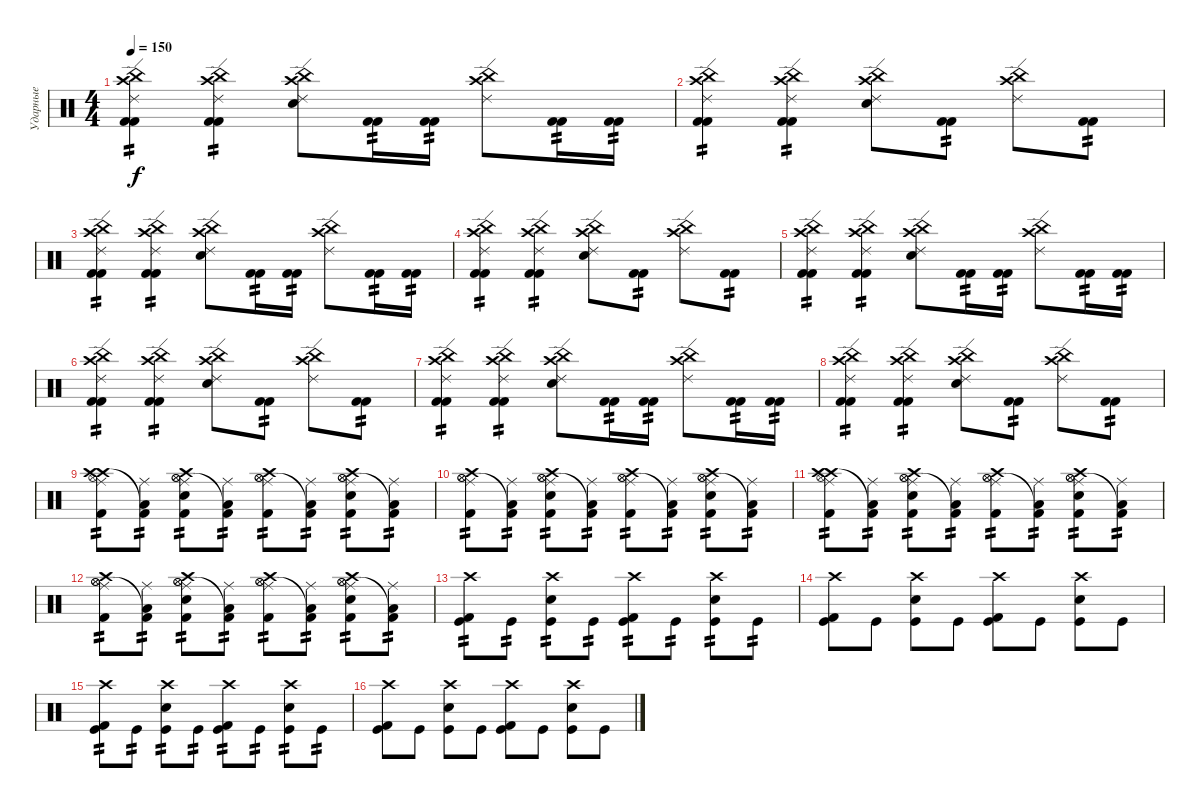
\track ("Ударные" "Ударные") {instrument percussion}
\staff {score}
\articulation defaults
\ts (4 4)
\tempo 150
\clef neutral
\ks c
("Crash high (hit)" "Ride (edge) 2" "China (hit)" "Kick (hit) 2" "Kick (hit) 2").4{tp 2 dy f} ("Crash high (hit)" "Ride (edge) 2" "China (hit)" "Kick (hit) 2" "Kick (hit) 2").4{tp 2} ("Crash high (hit)" "Ride (edge) 2" "Electric Snare (hit)" "China (hit)").8 ("Kick (hit) 2" "Kick (hit) 2").16{tp 2} ("Kick (hit) 2" "Kick (hit) 2").16{tp 2} ("Crash high (hit)" "Ride (edge) 2" "China (hit)").8 ("Kick (hit) 2" "Kick (hit) 2").16{tp 2} ("Kick (hit) 2" "Kick (hit) 2").16{tp 2} |
("Crash high (hit)" "Ride (edge) 2" "China (hit)" "Kick (hit) 2" "Kick (hit) 2").4{tp 2} ("Crash high (hit)" "Ride (edge) 2" "China (hit)" "Kick (hit) 2" "Kick (hit) 2").4{tp 2} ("Crash high (hit)" "Ride (edge) 2" "Electric Snare (hit)" "China (hit)").8 ("Kick (hit) 2" "Kick (hit) 2").8{tp 2} ("Crash high (hit)" "Ride (edge) 2" "China (hit)").8 ("Kick (hit) 2" "Kick (hit) 2").8{tp 2} |
("Crash high (hit)" "Ride (edge) 2" "China (hit)" "Kick (hit) 2" "Kick (hit) 2").4{tp 2} ("Crash high (hit)" "Ride (edge) 2" "China (hit)" "Kick (hit) 2" "Kick (hit) 2").4{tp 2} ("Crash high (hit)" "Ride (edge) 2" "Electric Snare (hit)" "China (hit)").8 ("Kick (hit) 2" "Kick (hit) 2").16{tp 2} ("Kick (hit) 2" "Kick (hit) 2").16{tp 2} ("Crash high (hit)" "Ride (edge) 2" "China (hit)").8 ("Kick (hit) 2" "Kick (hit) 2").16{tp 2} ("Kick (hit) 2" "Kick (hit) 2").16{tp 2} |
("Crash high (hit)" "Ride (edge) 2" "China (hit)" "Kick (hit) 2" "Kick (hit) 2").4{tp 2} ("Crash high (hit)" "Ride (edge) 2" "China (hit)" "Kick (hit) 2" "Kick (hit) 2").4{tp 2} ("Crash high (hit)" "Ride (edge) 2" "Electric Snare (hit)" "China (hit)").8 ("Kick (hit) 2" "Kick (hit) 2").8{tp 2} ("Crash high (hit)" "Ride (edge) 2" "China (hit)").8 ("Kick (hit) 2" "Kick (hit) 2").8{tp 2} |
("Crash high (hit)" "Ride (edge) 2" "China (hit)" "Kick (hit) 2" "Kick (hit) 2").4{tp 2} ("Crash high (hit)" "Ride (edge) 2" "China (hit)" "Kick (hit) 2" "Kick (hit) 2").4{tp 2} ("Crash high (hit)" "Ride (edge) 2" "Electric Snare (hit)" "China (hit)").8 ("Kick (hit) 2" "Kick (hit) 2").16{tp 2} ("Kick (hit) 2" "Kick (hit) 2").16{tp 2} ("Crash high (hit)" "Ride (edge) 2" "China (hit)").8 ("Kick (hit) 2" "Kick (hit) 2").16{tp 2} ("Kick (hit) 2" "Kick (hit) 2").16{tp 2} |
("Crash high (hit)" "Ride (edge) 2" "China (hit)" "Kick (hit) 2" "Kick (hit) 2").4{tp 2} ("Crash high (hit)" "Ride (edge) 2" "China (hit)" "Kick (hit) 2" "Kick (hit) 2").4{tp 2} ("Crash high (hit)" "Ride (edge) 2" "Electric Snare (hit)" "China (hit)").8 ("Kick (hit) 2" "Kick (hit) 2").8{tp 2} ("Crash high (hit)" "Ride (edge) 2" "China (hit)").8 ("Kick (hit) 2" "Kick (hit) 2").8{tp 2} |
("Crash high (hit)" "Ride (edge) 2" "China (hit)" "Kick (hit) 2" "Kick (hit) 2").4{tp 2} ("Crash high (hit)" "Ride (edge) 2" "China (hit)" "Kick (hit) 2" "Kick (hit) 2").4{tp 2} ("Crash high (hit)" "Ride (edge) 2" "Electric Snare (hit)" "China (hit)").8 ("Kick (hit) 2" "Kick (hit) 2").16{tp 2} ("Kick (hit) 2" "Kick (hit) 2").16{tp 2} ("Crash high (hit)" "Ride (edge) 2" "China (hit)").8 ("Kick (hit) 2" "Kick (hit) 2").16{tp 2} ("Kick (hit) 2" "Kick (hit) 2").16{tp 2} |
("Crash high (hit)" "Ride (edge) 2" "China (hit)" "Kick (hit) 2" "Kick (hit) 2").4{tp 2} ("Crash high (hit)" "Ride (edge) 2" "China (hit)" "Kick (hit) 2" "Kick (hit) 2").4{tp 2} ("Crash high (hit)" "Ride (edge) 2" "Electric Snare (hit)" "China (hit)").8 ("Kick (hit) 2" "Kick (hit) 2").8{tp 2} ("Crash high (hit)" "Ride (edge) 2" "China (hit)").8 ("Kick (hit) 2" "Kick (hit) 2").8{tp 2} |
("Crash high (hit)" "Kick (hit) 2" "Hi-Hat (open)" "Ride (middle)" "Crash high (hit)").8{tp 2} ("Low Tom (hit)"{t} "Kick (hit) 2" "Ride (middle)").8{tp 2} ("Hi-Hat (open)" "Electric Snare (hit)" "Kick (hit) 2" "Hi-Hat (open)" "Ride (middle)" "Crash high (hit)").8{tp 2} ("Low Tom (hit)"{t} "Kick (hit) 2" "Ride (middle)").8{tp 2} ("Hi-Hat (open)" "Kick (hit) 2" "Hi-Hat (open)" "Ride (middle)" "Crash high (hit)").8{tp 2} ("Low Tom (hit)"{t} "Kick (hit) 2" "Ride (middle)").8{tp 2} ("Hi-Hat (open)" "Electric Snare (hit)" "Kick (hit) 2" "Hi-Hat (open)" "Ride (middle)" "Crash high (hit)").8{tp 2} ("Low Tom (hit)"{t} "Kick (hit) 2" "Ride (middle)").8{tp 2} |
("Hi-Hat (open)" "Kick (hit) 2" "Hi-Hat (open)" "Ride (middle)" "Crash high (hit)").8{tp 2} ("Low Tom (hit)"{t} "Kick (hit) 2" "Ride (middle)").8{tp 2} ("Hi-Hat (open)" "Electric Snare (hit)" "Kick (hit) 2" "Hi-Hat (open)" "Ride (middle)" "Crash high (hit)").8{tp 2} ("Low Tom (hit)"{t} "Kick (hit) 2" "Ride (middle)").8{tp 2} ("Hi-Hat (open)" "Kick (hit) 2" "Hi-Hat (open)" "Ride (middle)" "Crash high (hit)").8{tp 2} ("Low Tom (hit)"{t} "Kick (hit) 2" "Ride (middle)").8{tp 2} ("Hi-Hat (open)" "Electric Snare (hit)" "Kick (hit) 2" "Hi-Hat (open)" "Ride (middle)" "Crash high (hit)").8{tp 2} ("Low Tom (hit)"{t} "Kick (hit) 2" "Ride (middle)").8{tp 2} |
("Crash high (hit)" "Kick (hit) 2" "Hi-Hat (open)" "Ride (middle)" "Crash high (hit)").8{tp 2} ("Low Tom (hit)"{t} "Kick (hit) 2" "Ride (middle)").8{tp 2} ("Hi-Hat (open)" "Electric Snare (hit)" "Kick (hit) 2" "Hi-Hat (open)" "Ride (middle)" "Crash high (hit)").8{tp 2} ("Low Tom (hit)"{t} "Kick (hit) 2" "Ride (middle)").8{tp 2} ("Hi-Hat (open)" "Kick (hit) 2" "Hi-Hat (open)" "Ride (middle)" "Crash high (hit)").8{tp 2} ("Low Tom (hit)"{t} "Kick (hit) 2" "Ride (middle)").8{tp 2} ("Hi-Hat (open)" "Electric Snare (hit)" "Kick (hit) 2" "Hi-Hat (open)" "Ride (middle)" "Crash high (hit)").8{tp 2} ("Low Tom (hit)"{t} "Kick (hit) 2" "Ride (middle)").8{tp 2} |
("Hi-Hat (open)" "Kick (hit) 2" "Hi-Hat (open)" "Ride (middle)" "Crash high (hit)").8{tp 2} ("Low Tom (hit)"{t} "Kick (hit) 2" "Ride (middle)").8{tp 2} ("Hi-Hat (open)" "Electric Snare (hit)" "Kick (hit) 2" "Hi-Hat (open)" "Ride (middle)" "Crash high (hit)").8{tp 2} ("Low Tom (hit)"{t} "Kick (hit) 2" "Ride (middle)").8{tp 2} ("Hi-Hat (open)" "Kick (hit) 2" "Hi-Hat (open)" "Ride (middle)" "Crash high (hit)").8{tp 2} ("Low Tom (hit)"{t} "Kick (hit) 2" "Ride (middle)").8{tp 2} ("Hi-Hat (open)" "Electric Snare (hit)" "Kick (hit) 2" "Hi-Hat (open)" "Ride (middle)" "Crash high (hit)").8{tp 2} ("Low Tom (hit)"{t} "Kick (hit) 2" "Ride (middle)").8{tp 2} |
("Crash high (hit)" "Kick (hit) 2" "Kick (hit)").8{tp 2} "Kick (hit)".8{tp 2} ("Crash high (hit)" "Electric Snare (hit)" "Kick (hit)").8{tp 2} "Kick (hit)".8{tp 2} ("Crash high (hit)" "Kick (hit) 2" "Kick (hit)").8{tp 2} "Kick (hit)".8{tp 2} ("Crash high (hit)" "Electric Snare (hit)" "Kick (hit)").8{tp 2} "Kick (hit)".8{tp 2} |
("Crash high (hit)" "Kick (hit) 2" "Kick (hit)").8 "Kick (hit)".8 ("Crash high (hit)" "Electric Snare (hit)" "Kick (hit)").8 "Kick (hit)".8 ("Crash high (hit)" "Kick (hit) 2" "Kick (hit)").8 "Kick (hit)".8 ("Crash high (hit)" "Electric Snare (hit)" "Kick (hit)").8 "Kick (hit)".8 |
("Crash high (hit)" "Kick (hit) 2" "Kick (hit)").8{tp 2} "Kick (hit)".8{tp 2} ("Crash high (hit)" "Electric Snare (hit)" "Kick (hit)").8{tp 2} "Kick (hit)".8{tp 2} ("Crash high (hit)" "Kick (hit) 2" "Kick (hit)").8{tp 2} "Kick (hit)".8{tp 2} ("Crash high (hit)" "Electric Snare (hit)" "Kick (hit)").8{tp 2} "Kick (hit)".8{tp 2} |
("Crash high (hit)" "Kick (hit) 2" "Kick (hit)").8 "Kick (hit)".8 ("Crash high (hit)" "Electric Snare (hit)" "Kick (hit)").8 "Kick (hit)".8 ("Crash high (hit)" "Kick (hit) 2" "Kick (hit)").8 "Kick (hit)".8 ("Crash high (hit)" "Electric Snare (hit)" "Kick (hit)").8 "Kick (hit)".8
